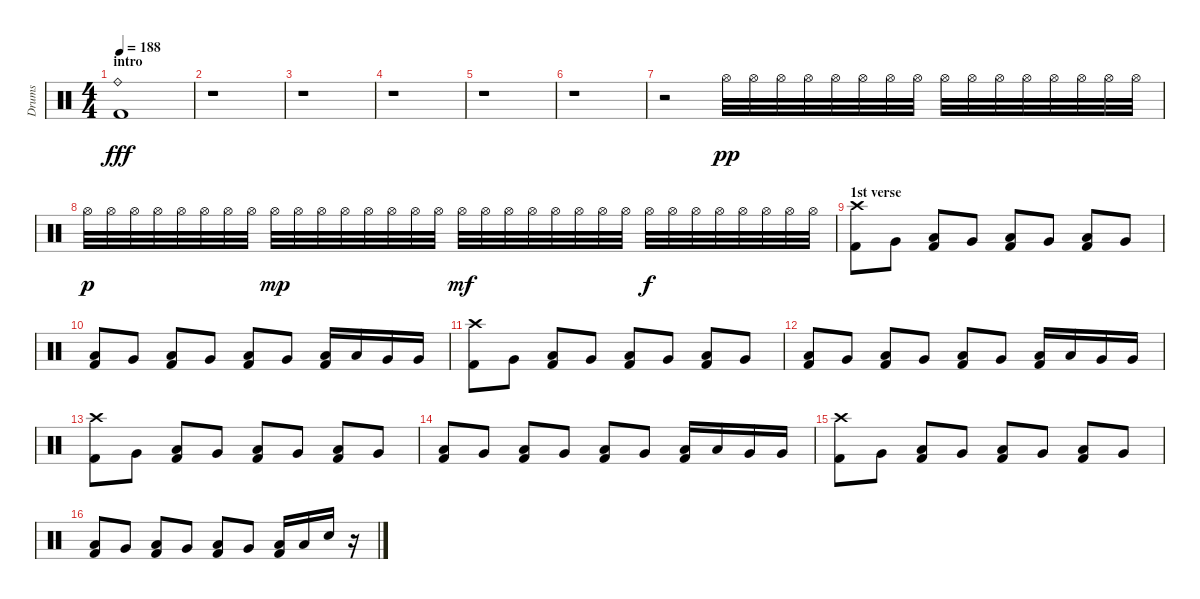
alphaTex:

\track ("Drums" "Drums") {instrument percussion}
\staff {score}
\articulation defaults
\ts (4 4)
\section ("" "intro")
\tempo 188
\clef neutral
\ks c
("Ride (bell)" "Kick (hit) 2").1{dy fff} |
r.1 |
r.1 |
r.1 |
r.1 |
r.1 |
r.2 "Hi-Hat (open)".32{dy pp} "Hi-Hat (open)".32 "Hi-Hat (open)".32 "Hi-Hat (open)".32 "Hi-Hat (open)".32 "Hi-Hat (open)".32 "Hi-Hat (open)".32 "Hi-Hat (open)".32 "Hi-Hat (open)".32 "Hi-Hat (open)".32 "Hi-Hat (open)".32 "Hi-Hat (open)".32 "Hi-Hat (open)".32 "Hi-Hat (open)".32 "Hi-Hat (open)".32 "Hi-Hat (open)".32 |
"Hi-Hat (open)".32{dy p} "Hi-Hat (open)".32 "Hi-Hat (open)".32 "Hi-Hat (open)".32 "Hi-Hat (open)".32 "Hi-Hat (open)".32 "Hi-Hat (open)".32 "Hi-Hat (open)".32 "Hi-Hat (open)".32{dy mp} "Hi-Hat (open)".32 "Hi-Hat (open)".32 "Hi-Hat (open)".32 "Hi-Hat (open)".32 "Hi-Hat (open)".32 "Hi-Hat (open)".32 "Hi-Hat (open)".32 "Hi-Hat (open)".32{dy mf} "Hi-Hat (open)".32 "Hi-Hat (open)".32 "Hi-Hat (open)".32 "Hi-Hat (open)".32 "Hi-Hat (open)".32 "Hi-Hat (open)".32 "Hi-Hat (open)".32 "Hi-Hat (open)".32{dy f} "Hi-Hat (open)".32 "Hi-Hat (open)".32 "Hi-Hat (open)".32 "Hi-Hat (open)".32 "Hi-Hat (open)".32 "Hi-Hat (open)".32 "Hi-Hat (open)".32 |
\section ("" "1st verse")
("Crash high (hit)" "Kick (hit) 2").8 "Very Low Tom (hit)".8 ("Low Floor Tom (hit)" "Kick (hit) 2").8 "Very Low Tom (hit)".8 ("Low Floor Tom (hit)" "Kick (hit) 2").8 "Very Low Tom (hit)".8 ("Low Floor Tom (hit)" "Kick (hit) 2").8 "Very Low Tom (hit)".8 |
("Low Floor Tom (hit)" "Kick (hit) 2").8 "Very Low Tom (hit)".8 ("Low Floor Tom (hit)" "Kick (hit) 2").8 "Very Low Tom (hit)".8 ("Low Floor Tom (hit)" "Kick (hit) 2").8 "Very Low Tom (hit)".8 ("Low Floor Tom (hit)" "Kick (hit) 2").16 "Low Floor Tom (hit)".16 "Very Low Tom (hit)".16 "Very Low Tom (hit)".16 |
("Crash high (hit)" "Kick (hit) 2").8 "Very Low Tom (hit)".8 ("Low Floor Tom (hit)" "Kick (hit) 2").8 "Very Low Tom (hit)".8 ("Low Floor Tom (hit)" "Kick (hit) 2").8 "Very Low Tom (hit)".8 ("Low Floor Tom (hit)" "Kick (hit) 2").8 "Very Low Tom (hit)".8 |
("Low Floor Tom (hit)" "Kick (hit) 2").8 "Very Low Tom (hit)".8 ("Low Floor Tom (hit)" "Kick (hit) 2").8 "Very Low Tom (hit)".8 ("Low Floor Tom (hit)" "Kick (hit) 2").8 "Very Low Tom (hit)".8 ("Low Floor Tom (hit)" "Kick (hit) 2").16 "Low Floor Tom (hit)".16 "Very Low Tom (hit)".16 "Very Low Tom (hit)".16 |
("Crash high (hit)" "Kick (hit) 2").8 "Very Low Tom (hit)".8 ("Low Floor Tom (hit)" "Kick (hit) 2").8 "Very Low Tom (hit)".8 ("Low Floor Tom (hit)" "Kick (hit) 2").8 "Very Low Tom (hit)".8 ("Low Floor Tom (hit)" "Kick (hit) 2").8 "Very Low Tom (hit)".8 |
("Low Floor Tom (hit)" "Kick (hit) 2").8 "Very Low Tom (hit)".8 ("Low Floor Tom (hit)" "Kick (hit) 2").8 "Very Low Tom (hit)".8 ("Low Floor Tom (hit)" "Kick (hit) 2").8 "Very Low Tom (hit)".8 ("Low Floor Tom (hit)" "Kick (hit) 2").16 "Low Floor Tom (hit)".16 "Very Low Tom (hit)".16 "Very Low Tom (hit)".16 |
("Crash high (hit)" "Kick (hit) 2").8 "Very Low Tom (hit)".8 ("Low Floor Tom (hit)" "Kick (hit) 2").8 "Very Low Tom (hit)".8 ("Low Floor Tom (hit)" "Kick (hit) 2").8 "Very Low Tom (hit)".8 ("Low Floor Tom (hit)" "Kick (hit) 2").8 "Very Low Tom (hit)".8 |
("Low Floor Tom (hit)" "Kick (hit) 2").8 "Very Low Tom (hit)".8 ("Low Floor Tom (hit)" "Kick (hit) 2").8 "Very Low Tom (hit)".8 ("Low Floor Tom (hit)" "Kick (hit) 2").8 "Very Low Tom (hit)".8 ("Low Floor Tom (hit)" "Kick (hit) 2").16 "Low Floor Tom (hit)".16 "Electric Snare (hit)".16 r.16
